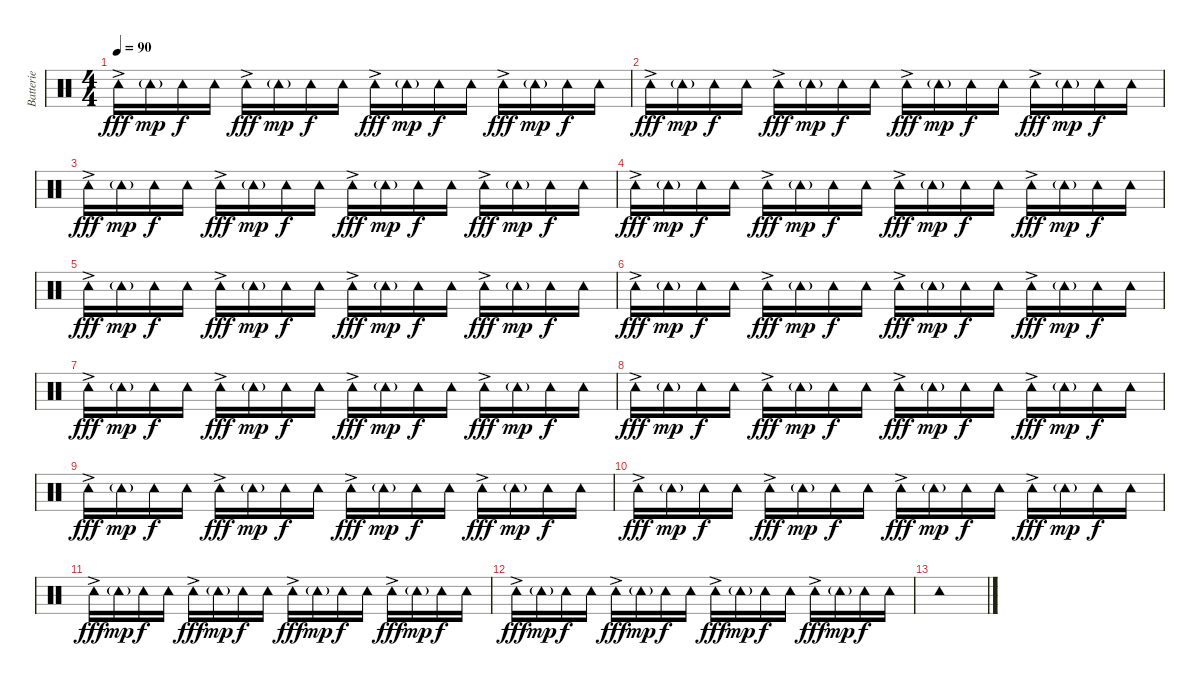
\track ("Batterie" "Batterie") {instrument percussion}
\staff {score}
\articulation defaults
\ts (4 4)
\tempo 90
\clef neutral
\ks c "Tambourine (hit)"{ac}.16{dy fff} "Tambourine (hit)"{g}.16{dy mp} "Tambourine (hit)".16{dy f} "Tambourine (hit)".16 "Tambourine (hit)"{ac}.16{dy fff} "Tambourine (hit)"{g}.16{dy mp} "Tambourine (hit)".16{dy f} "Tambourine (hit)".16 "Tambourine (hit)"{ac}.16{dy fff} "Tambourine (hit)"{g}.16{dy mp} "Tambourine (hit)".16{dy f} "Tambourine (hit)".16 "Tambourine (hit)"{ac}.16{dy fff} "Tambourine (hit)"{g}.16{dy mp} "Tambourine (hit)".16{dy f} "Tambourine (hit)".16
|
"Tambourine (hit)"{ac}.16{dy fff} "Tambourine (hit)"{g}.16{dy mp} "Tambourine (hit)".16{dy f} "Tambourine (hit)".16 "Tambourine (hit)"{ac}.16{dy fff} "Tambourine (hit)"{g}.16{dy mp} "Tambourine (hit)".16{dy f} "Tambourine (hit)".16 "Tambourine (hit)"{ac}.16{dy fff} "Tambourine (hit)"{g}.16{dy mp} "Tambourine (hit)".16{dy f} "Tambourine (hit)".16 "Tambourine (hit)"{ac}.16{dy fff} "Tambourine (hit)"{g}.16{dy mp} "Tambourine (hit)".16{dy f} "Tambourine (hit)".16 |
"Tambourine (hit)"{ac}.16{dy fff} "Tambourine (hit)"{g}.16{dy mp} "Tambourine (hit)".16{dy f} "Tambourine (hit)".16 "Tambourine (hit)"{ac}.16{dy fff} "Tambourine (hit)"{g}.16{dy mp} "Tambourine (hit)".16{dy f} "Tambourine (hit)".16 "Tambourine (hit)"{ac}.16{dy fff} "Tambourine (hit)"{g}.16{dy mp} "Tambourine (hit)".16{dy f} "Tambourine (hit)".16 "Tambourine (hit)"{ac}.16{dy fff} "Tambourine (hit)"{g}.16{dy mp} "Tambourine (hit)".16{dy f} "Tambourine (hit)".16 |
"Tambourine (hit)"{ac}.16{dy fff} "Tambourine (hit)"{g}.16{dy mp} "Tambourine (hit)".16{dy f} "Tambourine (hit)".16 "Tambourine (hit)"{ac}.16{dy fff} "Tambourine (hit)"{g}.16{dy mp} "Tambourine (hit)".16{dy f} "Tambourine (hit)".16 "Tambourine (hit)"{ac}.16{dy fff} "Tambourine (hit)"{g}.16{dy mp} "Tambourine (hit)".16{dy f} "Tambourine (hit)".16 "Tambourine (hit)"{ac}.16{dy fff} "Tambourine (hit)"{g}.16{dy mp} "Tambourine (hit)".16{dy f} "Tambourine (hit)".16 |
"Tambourine (hit)"{ac}.16{dy fff} "Tambourine (hit)"{g}.16{dy mp} "Tambourine (hit)".16{dy f} "Tambourine (hit)".16 "Tambourine (hit)"{ac}.16{dy fff} "Tambourine (hit)"{g}.16{dy mp} "Tambourine (hit)".16{dy f} "Tambourine (hit)".16 "Tambourine (hit)"{ac}.16{dy fff} "Tambourine (hit)"{g}.16{dy mp} "Tambourine (hit)".16{dy f} "Tambourine (hit)".16 "Tambourine (hit)"{ac}.16{dy fff} "Tambourine (hit)"{g}.16{dy mp} "Tambourine (hit)".16{dy f} "Tambourine (hit)".16 |
"Tambourine (hit)"{ac}.16{dy fff} "Tambourine (hit)"{g}.16{dy mp} "Tambourine (hit)".16{dy f} "Tambourine (hit)".16 "Tambourine (hit)"{ac}.16{dy fff} "Tambourine (hit)"{g}.16{dy mp} "Tambourine (hit)".16{dy f} "Tambourine (hit)".16 "Tambourine (hit)"{ac}.16{dy fff} "Tambourine (hit)"{g}.16{dy mp} "Tambourine (hit)".16{dy f} "Tambourine (hit)".16 "Tambourine (hit)"{ac}.16{dy fff} "Tambourine (hit)"{g}.16{dy mp} "Tambourine (hit)".16{dy f} "Tambourine (hit)".16 |
"Tambourine (hit)"{ac}.16{dy fff} "Tambourine (hit)"{g}.16{dy mp} "Tambourine (hit)".16{dy f} "Tambourine (hit)".16 "Tambourine (hit)"{ac}.16{dy fff} "Tambourine (hit)"{g}.16{dy mp} "Tambourine (hit)".16{dy f} "Tambourine (hit)".16 "Tambourine (hit)"{ac}.16{dy fff} "Tambourine (hit)"{g}.16{dy mp} "Tambourine (hit)".16{dy f} "Tambourine (hit)".16 "Tambourine (hit)"{ac}.16{dy fff} "Tambourine (hit)"{g}.16{dy mp} "Tambourine (hit)".16{dy f} "Tambourine (hit)".16 |
"Tambourine (hit)"{ac}.16{dy fff} "Tambourine (hit)"{g}.16{dy mp} "Tambourine (hit)".16{dy f} "Tambourine (hit)".16 "Tambourine (hit)"{ac}.16{dy fff} "Tambourine (hit)"{g}.16{dy mp} "Tambourine (hit)".16{dy f} "Tambourine (hit)".16 "Tambourine (hit)"{ac}.16{dy fff} "Tambourine (hit)"{g}.16{dy mp} "Tambourine (hit)".16{dy f} "Tambourine (hit)".16 "Tambourine (hit)"{ac}.16{dy fff} "Tambourine (hit)"{g}.16{dy mp} "Tambourine (hit)".16{dy f} "Tambourine (hit)".16 |
"Tambourine (hit)"{ac}.16{dy fff} "Tambourine (hit)"{g}.16{dy mp} "Tambourine (hit)".16{dy f} "Tambourine (hit)".16 "Tambourine (hit)"{ac}.16{dy fff} "Tambourine (hit)"{g}.16{dy mp} "Tambourine (hit)".16{dy f} "Tambourine (hit)".16 "Tambourine (hit)"{ac}.16{dy fff} "Tambourine (hit)"{g}.16{dy mp} "Tambourine (hit)".16{dy f} "Tambourine (hit)".16 "Tambourine (hit)"{ac}.16{dy fff} "Tambourine (hit)"{g}.16{dy mp} "Tambourine (hit)".16{dy f} "Tambourine (hit)".16 |
"Tambourine (hit)"{ac}.16{dy fff} "Tambourine (hit)"{g}.16{dy mp} "Tambourine (hit)".16{dy f} "Tambourine (hit)".16 "Tambourine (hit)"{ac}.16{dy fff} "Tambourine (hit)"{g}.16{dy mp} "Tambourine (hit)".16{dy f} "Tambourine (hit)".16 "Tambourine (hit)"{ac}.16{dy fff} "Tambourine (hit)"{g}.16{dy mp} "Tambourine (hit)".16{dy f} "Tambourine (hit)".16 "Tambourine (hit)"{ac}.16{dy fff} "Tambourine (hit)"{g}.16{dy mp} "Tambourine (hit)".16{dy f} "Tambourine (hit)".16 |
"Tambourine (hit)"{ac}.16{dy fff} "Tambourine (hit)"{g}.16{dy mp} "Tambourine (hit)".16{dy f} "Tambourine (hit)".16 "Tambourine (hit)"{ac}.16{dy fff} "Tambourine (hit)"{g}.16{dy mp} "Tambourine (hit)".16{dy f} "Tambourine (hit)".16 "Tambourine (hit)"{ac}.16{dy fff} "Tambourine (hit)"{g}.16{dy mp} "Tambourine (hit)".16{dy f} "Tambourine (hit)".16 "Tambourine (hit)"{ac}.16{dy fff} "Tambourine (hit)"{g}.16{dy mp} "Tambourine (hit)".16{dy f} "Tambourine (hit)".16 |
"Tambourine (hit)"{ac}.16{dy fff} "Tambourine (hit)"{g}.16{dy mp} "Tambourine (hit)".16{dy f} "Tambourine (hit)".16 "Tambourine (hit)"{ac}.16{dy fff} "Tambourine (hit)"{g}.16{dy mp} "Tambourine (hit)".16{dy f} "Tambourine (hit)".16 "Tambourine (hit)"{ac}.16{dy fff} "Tambourine (hit)"{g}.16{dy mp} "Tambourine (hit)".16{dy f} "Tambourine (hit)".16 "Tambourine (hit)"{ac}.16{dy fff} "Tambourine (hit)"{g}.16{dy mp} "Tambourine (hit)".16{dy f} "Tambourine (hit)".16 |
\section ("" "")
"Tambourine (hit)".1
